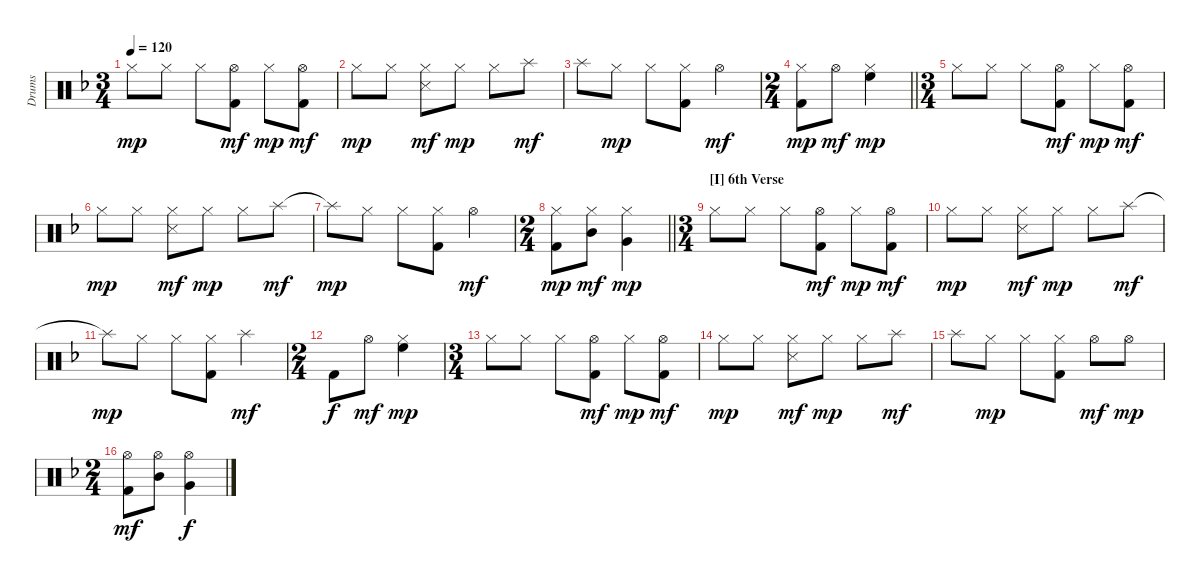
\track ("Drums" "Drums") {instrument percussion}
\staff {score}
\articulation defaults
\ts (3 4)
\tempo 120
\clef neutral
\ks dminor "Hi-Hat (closed)".8{dy mp} "Hi-Hat (closed)".8 "Hi-Hat (closed)".8
("Hi-Hat (open)" "Kick (hit) 2").8{dy mf} "Hi-Hat (closed)".8{dy mp} ("Hi-Hat (open)" "Kick (hit) 2").8{dy mf} |
"Hi-Hat (closed)".8{dy mp} "Hi-Hat (closed)".8 ("Hi-Hat (closed)" "Snare (side stick) 3").8{dy mf} "Hi-Hat (closed)".8{dy mp} "Hi-Hat (closed)".8 "Splash (hit)".8{dy mf} |
"Splash (hit)".8 "Hi-Hat (closed)".8{dy mp} "Hi-Hat (closed)".8 ("Hi-Hat (closed)" "Kick (hit) 2").8 "Hi-Hat (open)".4{dy mf} |
\ts (2 4)
\barLineRight lightlight
("Hi-Hat (closed)" "Kick (hit) 2").8{dy mp} "Hi-Hat (open)".8{dy mf} ("Hi-Hat (closed)" "High Floor Tom (hit)").4{dy mp} |
\ts (3 4)
"Hi-Hat (closed)".8 "Hi-Hat (closed)".8 "Hi-Hat (closed)".8 ("Hi-Hat (open)" "Kick (hit) 2").8{dy mf} "Hi-Hat (closed)".8{dy mp} ("Hi-Hat (open)" "Kick (hit) 2").8{dy mf} |
"Hi-Hat (closed)".8{dy mp} "Hi-Hat (closed)".8 ("Hi-Hat (closed)" "Snare (side stick) 3").8{dy mf} "Hi-Hat (closed)".8{dy mp} "Hi-Hat (closed)".8 "Splash (hit)".8{dy mf} |
"Splash (hit)"{t}.8{dy mp} "Hi-Hat (closed)".8 "Hi-Hat (closed)".8 ("Hi-Hat (closed)" "Kick (hit) 2").8 "Hi-Hat (open)".4{dy mf} |
\ts (2 4)
\barLineRight lightlight
("Hi-Hat (closed)" "Kick (hit) 2").8{dy mp} ("Hi-Hat (closed)" "Mid Tom (hit)").8{dy mf} ("Hi-Hat (closed)" "Very Low Tom (hit)").4{dy mp} |
\ts (3 4)
\section ("" "[I] 6th Verse")
"Hi-Hat (closed)".8 "Hi-Hat (closed)".8 "Hi-Hat (closed)".8 ("Hi-Hat (open)" "Kick (hit) 2").8{dy mf} "Hi-Hat (closed)".8{dy mp} ("Hi-Hat (open)" "Kick (hit) 2").8{dy mf} |
"Hi-Hat (closed)".8{dy mp} "Hi-Hat (closed)".8 ("Hi-Hat (closed)" "Snare (side stick) 3").8{dy mf} "Hi-Hat (closed)".8{dy mp} "Hi-Hat (closed)".8 "Splash (hit)".8{dy mf} |
"Splash (hit)"{t}.8{dy mp} "Hi-Hat (closed)".8 "Hi-Hat (closed)".8 ("Hi-Hat (closed)" "Kick (hit) 2").8 "Splash (hit)".4{dy mf} |
\ts (2 4)
"Kick (hit) 2".8{dy f} "Hi-Hat (open)".8{dy mf} ("Hi-Hat (closed)" "High Floor Tom (hit)").4{dy mp} |
\ts (3 4)
"Hi-Hat (closed)".8 "Hi-Hat (closed)".8 "Hi-Hat (closed)".8 ("Hi-Hat (open)" "Kick (hit) 2").8{dy mf} "Hi-Hat (closed)".8{dy mp} ("Hi-Hat (open)" "Kick (hit) 2").8{dy mf} |
"Hi-Hat (closed)".8{dy mp} "Hi-Hat (closed)".8 ("Hi-Hat (closed)" "Snare (side stick) 3").8{dy mf} "Hi-Hat (closed)".8{dy mp} "Hi-Hat (closed)".8 "Splash (hit)".8{dy mf} |
"Splash (hit)".8 "Hi-Hat (closed)".8{dy mp} "Hi-Hat (closed)".8 ("Hi-Hat (closed)" "Kick (hit) 2").8 "Hi-Hat (open)".8{dy mf} "Hi-Hat (open)".8{dy mp} |
\ts (2 4)
("Hi-Hat (open)" "Kick (hit) 2").8{dy mf} ("Hi-Hat (open)" "Mid Tom (hit)").8 ("Hi-Hat (open)" "Very Low Tom (hit)").4{dy f}
